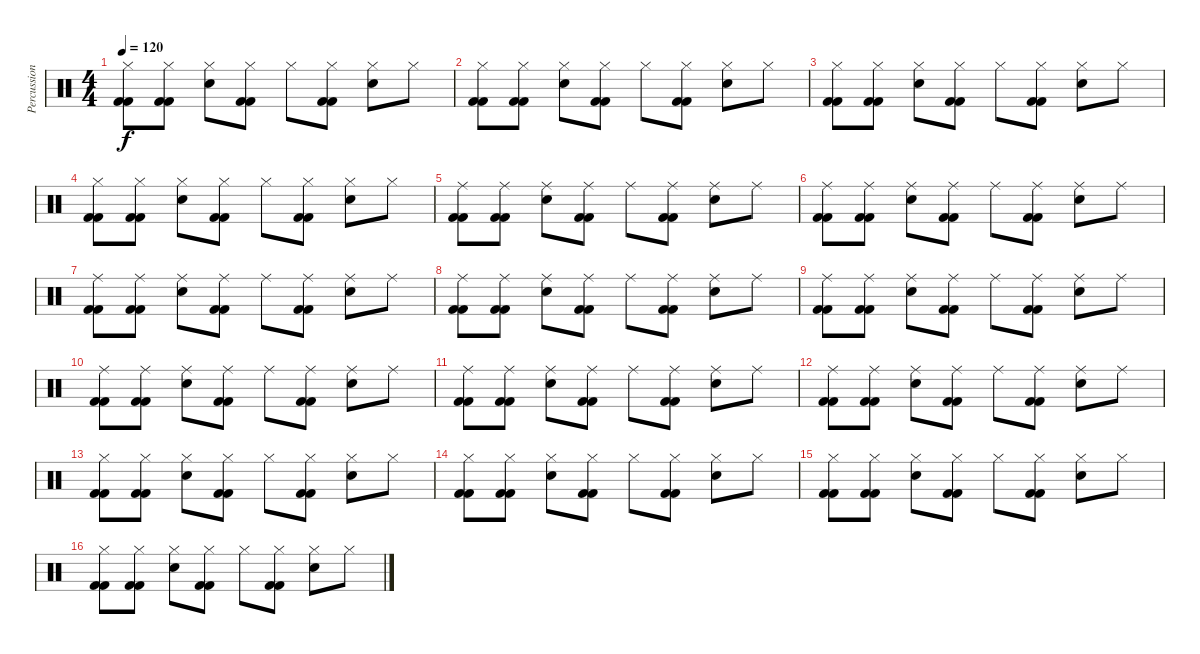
\track ("Percussion" "Percussion") {instrument percussion}
\staff {score}
\articulation defaults
\ts (4 4)
\tempo 120
\clef neutral
\ks c
("Hi-Hat (closed)" "Kick (hit) 2" "Kick (hit) 2").8{dy f} ("Hi-Hat (closed)" "Kick (hit) 2" "Kick (hit) 2").8 ("Hi-Hat (closed)" "Snare (hit) 2").8 ("Hi-Hat (closed)" "Kick (hit) 2" "Kick (hit) 2").8 "Hi-Hat (closed)".8 ("Hi-Hat (closed)" "Kick (hit) 2" "Kick (hit) 2").8 ("Hi-Hat (closed)" "Snare (hit) 2").8 "Hi-Hat (closed)".8 |
("Hi-Hat (closed)" "Kick (hit) 2" "Kick (hit) 2").8 ("Hi-Hat (closed)" "Kick (hit) 2" "Kick (hit) 2").8 ("Hi-Hat (closed)" "Snare (hit) 2").8 ("Hi-Hat (closed)" "Kick (hit) 2" "Kick (hit) 2").8 "Hi-Hat (closed)".8 ("Hi-Hat (closed)" "Kick (hit) 2" "Kick (hit) 2").8 ("Hi-Hat (closed)" "Snare (hit) 2").8 "Hi-Hat (closed)".8 |
("Hi-Hat (closed)" "Kick (hit) 2" "Kick (hit) 2").8 ("Hi-Hat (closed)" "Kick (hit) 2" "Kick (hit) 2").8 ("Hi-Hat (closed)" "Snare (hit) 2").8 ("Hi-Hat (closed)" "Kick (hit) 2" "Kick (hit) 2").8 "Hi-Hat (closed)".8 ("Hi-Hat (closed)" "Kick (hit) 2" "Kick (hit) 2").8 ("Hi-Hat (closed)" "Snare (hit) 2").8 "Hi-Hat (closed)".8 |
("Hi-Hat (closed)" "Kick (hit) 2" "Kick (hit) 2").8 ("Hi-Hat (closed)" "Kick (hit) 2" "Kick (hit) 2").8 ("Hi-Hat (closed)" "Snare (hit) 2").8 ("Hi-Hat (closed)" "Kick (hit) 2" "Kick (hit) 2").8 "Hi-Hat (closed)".8 ("Hi-Hat (closed)" "Kick (hit) 2" "Kick (hit) 2").8 ("Hi-Hat (closed)" "Snare (hit) 2").8 "Hi-Hat (closed)".8 |
("Ride (middle)" "Kick (hit) 2" "Kick (hit) 2").8 ("Ride (middle)" "Kick (hit) 2" "Kick (hit) 2").8 ("Ride (middle)" "Snare (hit) 2").8 ("Ride (middle)" "Kick (hit) 2" "Kick (hit) 2").8 "Ride (middle)".8 ("Ride (middle)" "Kick (hit) 2" "Kick (hit) 2").8 ("Ride (middle)" "Snare (hit) 2").8 "Ride (middle)".8 |
("Ride (middle)" "Kick (hit) 2" "Kick (hit) 2").8 ("Ride (middle)" "Kick (hit) 2" "Kick (hit) 2").8 ("Ride (middle)" "Snare (hit) 2").8 ("Ride (middle)" "Kick (hit) 2" "Kick (hit) 2").8 "Ride (middle)".8 ("Ride (middle)" "Kick (hit) 2" "Kick (hit) 2").8 ("Ride (middle)" "Snare (hit) 2").8 "Ride (middle)".8 |
("Ride (middle)" "Kick (hit) 2" "Kick (hit) 2").8 ("Ride (middle)" "Kick (hit) 2" "Kick (hit) 2").8 ("Ride (middle)" "Snare (hit) 2").8 ("Ride (middle)" "Kick (hit) 2" "Kick (hit) 2").8 "Ride (middle)".8 ("Ride (middle)" "Kick (hit) 2" "Kick (hit) 2").8 ("Ride (middle)" "Snare (hit) 2").8 "Ride (middle)".8 |
("Ride (middle)" "Kick (hit) 2" "Kick (hit) 2").8 ("Ride (middle)" "Kick (hit) 2" "Kick (hit) 2").8 ("Ride (middle)" "Snare (hit) 2").8 ("Ride (middle)" "Kick (hit) 2" "Kick (hit) 2").8 "Ride (middle)".8 ("Ride (middle)" "Kick (hit) 2" "Kick (hit) 2").8 ("Ride (middle)" "Snare (hit) 2").8 "Ride (middle)".8 |
("Ride (middle)" "Kick (hit) 2" "Kick (hit) 2").8 ("Ride (middle)" "Kick (hit) 2" "Kick (hit) 2").8 ("Ride (middle)" "Snare (hit) 2").8 ("Ride (middle)" "Kick (hit) 2" "Kick (hit) 2").8 "Ride (middle)".8 ("Ride (middle)" "Kick (hit) 2" "Kick (hit) 2").8 ("Ride (middle)" "Snare (hit) 2").8 "Ride (middle)".8 |
("Ride (middle)" "Kick (hit) 2" "Kick (hit) 2").8 ("Ride (middle)" "Kick (hit) 2" "Kick (hit) 2").8 ("Ride (middle)" "Snare (hit) 2").8 ("Ride (middle)" "Kick (hit) 2" "Kick (hit) 2").8 "Ride (middle)".8 ("Ride (middle)" "Kick (hit) 2" "Kick (hit) 2").8 ("Ride (middle)" "Snare (hit) 2").8 "Ride (middle)".8 |
("Ride (middle)" "Kick (hit) 2" "Kick (hit) 2").8 ("Ride (middle)" "Kick (hit) 2" "Kick (hit) 2").8 ("Ride (middle)" "Snare (hit) 2").8 ("Ride (middle)" "Kick (hit) 2" "Kick (hit) 2").8 "Ride (middle)".8 ("Ride (middle)" "Kick (hit) 2" "Kick (hit) 2").8 ("Ride (middle)" "Snare (hit) 2").8 "Ride (middle)".8 |
("Ride (middle)" "Kick (hit) 2" "Kick (hit) 2").8 ("Ride (middle)" "Kick (hit) 2" "Kick (hit) 2").8 ("Ride (middle)" "Snare (hit) 2").8 ("Ride (middle)" "Kick (hit) 2" "Kick (hit) 2").8 "Ride (middle)".8 ("Ride (middle)" "Kick (hit) 2" "Kick (hit) 2").8 ("Ride (middle)" "Snare (hit) 2").8 "Ride (middle)".8 |
("Hi-Hat (closed)" "Kick (hit) 2" "Kick (hit) 2").8 ("Hi-Hat (closed)" "Kick (hit) 2" "Kick (hit) 2").8 ("Hi-Hat (closed)" "Snare (hit) 2").8 ("Hi-Hat (closed)" "Kick (hit) 2" "Kick (hit) 2").8 "Hi-Hat (closed)".8 ("Hi-Hat (closed)" "Kick (hit) 2" "Kick (hit) 2").8 ("Hi-Hat (closed)" "Snare (hit) 2").8 "Hi-Hat (closed)".8 |
("Hi-Hat (closed)" "Kick (hit) 2" "Kick (hit) 2").8 ("Hi-Hat (closed)" "Kick (hit) 2" "Kick (hit) 2").8 ("Hi-Hat (closed)" "Snare (hit) 2").8 ("Hi-Hat (closed)" "Kick (hit) 2" "Kick (hit) 2").8 "Hi-Hat (closed)".8 ("Hi-Hat (closed)" "Kick (hit) 2" "Kick (hit) 2").8 ("Hi-Hat (closed)" "Snare (hit) 2").8 "Hi-Hat (closed)".8 |
("Hi-Hat (closed)" "Kick (hit) 2" "Kick (hit) 2").8 ("Hi-Hat (closed)" "Kick (hit) 2" "Kick (hit) 2").8 ("Hi-Hat (closed)" "Snare (hit) 2").8 ("Hi-Hat (closed)" "Kick (hit) 2" "Kick (hit) 2").8 "Hi-Hat (closed)".8 ("Hi-Hat (closed)" "Kick (hit) 2" "Kick (hit) 2").8 ("Hi-Hat (closed)" "Snare (hit) 2").8 "Hi-Hat (closed)".8 |
("Hi-Hat (closed)" "Kick (hit) 2" "Kick (hit) 2").8 ("Hi-Hat (closed)" "Kick (hit) 2" "Kick (hit) 2").8 ("Hi-Hat (closed)" "Snare (hit) 2").8 ("Hi-Hat (closed)" "Kick (hit) 2" "Kick (hit) 2").8 "Hi-Hat (closed)".8 ("Hi-Hat (closed)" "Kick (hit) 2" "Kick (hit) 2").8 ("Hi-Hat (closed)" "Snare (hit) 2").8 "Hi-Hat (closed)".8
